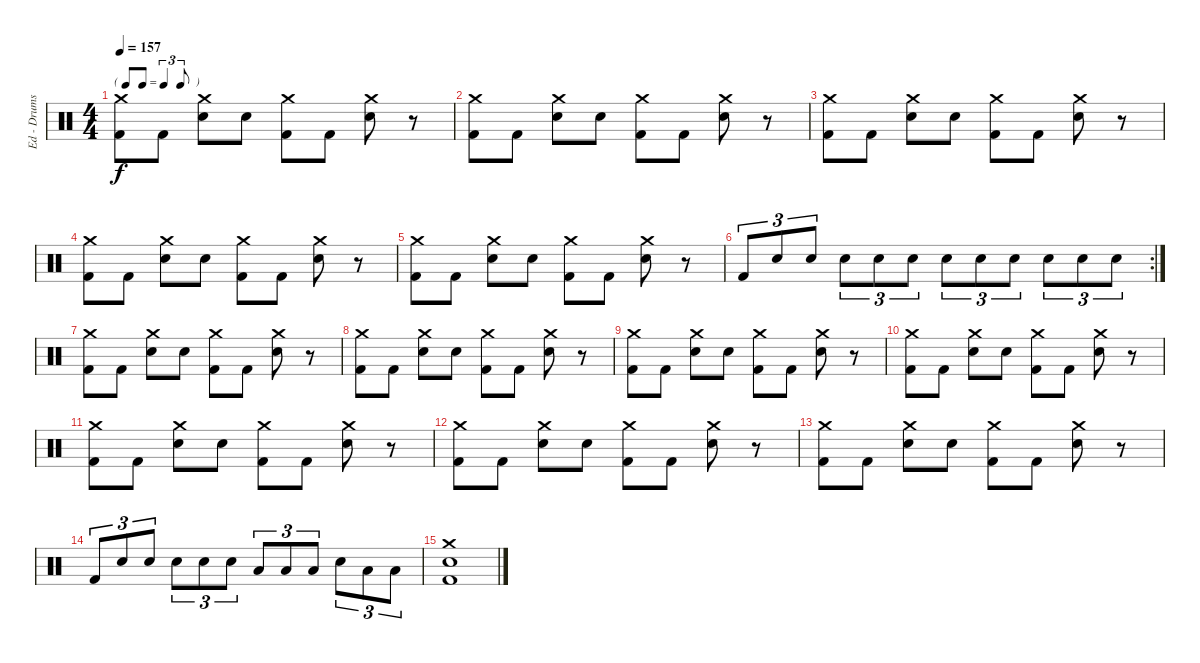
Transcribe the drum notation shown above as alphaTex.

\track ("Ed - Drums" "Ed - Drums") {instrument percussion}
\staff {score}
\articulation defaults
\ts (4 4)
\tf triplet8th
\tempo 157
\clef neutral
\ks c
("Crash medium (hit)" "Kick (hit) 2").8{dy f} "Kick (hit) 2".8 ("Crash medium (hit)" "Electric Snare (hit)").8 "Electric Snare (hit)".8 ("Crash medium (hit)" "Kick (hit) 2").8 "Kick (hit) 2".8 ("Crash medium (hit)" "Electric Snare (hit)").8 r.8 |
("Crash medium (hit)" "Kick (hit) 2").8 "Kick (hit) 2".8 ("Crash medium (hit)" "Electric Snare (hit)").8 "Electric Snare (hit)".8 ("Crash medium (hit)" "Kick (hit) 2").8 "Kick (hit) 2".8 ("Crash medium (hit)" "Electric Snare (hit)").8 r.8 |
("Crash medium (hit)" "Kick (hit) 2").8 "Kick (hit) 2".8 ("Crash medium (hit)" "Electric Snare (hit)").8 "Electric Snare (hit)".8 ("Crash medium (hit)" "Kick (hit) 2").8 "Kick (hit) 2".8 ("Crash medium (hit)" "Electric Snare (hit)").8 r.8 |
("Crash medium (hit)" "Kick (hit) 2").8 "Kick (hit) 2".8 ("Crash medium (hit)" "Electric Snare (hit)").8 "Electric Snare (hit)".8 ("Crash medium (hit)" "Kick (hit) 2").8 "Kick (hit) 2".8 ("Crash medium (hit)" "Electric Snare (hit)").8 r.8 |
("Crash medium (hit)" "Kick (hit) 2").8 "Kick (hit) 2".8 ("Crash medium (hit)" "Electric Snare (hit)").8 "Electric Snare (hit)".8 ("Crash medium (hit)" "Kick (hit) 2").8 "Kick (hit) 2".8 ("Crash medium (hit)" "Electric Snare (hit)").8 r.8 |
\rc 2 "Kick (hit) 2".8{tu (3 2)} "Electric Snare (hit)".8{tu (3 2)} "Electric Snare (hit)".8{tu (3 2)} "Electric Snare (hit)".8{tu (3 2)} "Electric Snare (hit)".8{tu (3 2)} "Electric Snare (hit)".8{tu (3 2)} "Electric Snare (hit)".8{tu (3 2)} "Electric Snare (hit)".8{tu (3 2)} "Electric Snare (hit)".8{tu (3 2)} "Electric Snare (hit)".8{tu (3 2)} "Electric Snare (hit)".8{tu (3 2)} "Electric Snare (hit)".8{tu (3 2)}
|
("Crash medium (hit)" "Kick (hit) 2").8 "Kick (hit) 2".8 ("Crash medium (hit)" "Electric Snare (hit)").8 "Electric Snare (hit)".8 ("Crash medium (hit)" "Kick (hit) 2").8 "Kick (hit) 2".8 ("Crash medium (hit)" "Electric Snare (hit)").8 r.8 |
("Crash medium (hit)" "Kick (hit) 2").8 "Kick (hit) 2".8 ("Crash medium (hit)" "Electric Snare (hit)").8 "Electric Snare (hit)".8 ("Crash medium (hit)" "Kick (hit) 2").8 "Kick (hit) 2".8 ("Crash medium (hit)" "Electric Snare (hit)").8 r.8 |
("Crash medium (hit)" "Kick (hit) 2").8 "Kick (hit) 2".8 ("Crash medium (hit)" "Electric Snare (hit)").8 "Electric Snare (hit)".8 ("Crash medium (hit)" "Kick (hit) 2").8 "Kick (hit) 2".8 ("Crash medium (hit)" "Electric Snare (hit)").8 r.8 |
("Crash medium (hit)" "Kick (hit) 2").8 "Kick (hit) 2".8 ("Crash medium (hit)" "Electric Snare (hit)").8 "Electric Snare (hit)".8 ("Crash medium (hit)" "Kick (hit) 2").8 "Kick (hit) 2".8 ("Crash medium (hit)" "Electric Snare (hit)").8 r.8 |
("Crash medium (hit)" "Kick (hit) 2").8 "Kick (hit) 2".8 ("Crash medium (hit)" "Electric Snare (hit)").8 "Electric Snare (hit)".8 ("Crash medium (hit)" "Kick (hit) 2").8 "Kick (hit) 2".8 ("Crash medium (hit)" "Electric Snare (hit)").8 r.8 |
("Crash medium (hit)" "Kick (hit) 2").8 "Kick (hit) 2".8 ("Crash medium (hit)" "Electric Snare (hit)").8 "Electric Snare (hit)".8 ("Crash medium (hit)" "Kick (hit) 2").8 "Kick (hit) 2".8 ("Crash medium (hit)" "Electric Snare (hit)").8 r.8 |
("Crash medium (hit)" "Kick (hit) 2").8 "Kick (hit) 2".8 ("Crash medium (hit)" "Electric Snare (hit)").8 "Electric Snare (hit)".8 ("Crash medium (hit)" "Kick (hit) 2").8 "Kick (hit) 2".8 ("Crash medium (hit)" "Electric Snare (hit)").8 r.8 |
"Kick (hit) 2".8{tu (3 2)} "Electric Snare (hit)".8{tu (3 2)} "Electric Snare (hit)".8{tu (3 2)} "Electric Snare (hit)".8{tu (3 2)} "Electric Snare (hit)".8{tu (3 2)} "Electric Snare (hit)".8{tu (3 2)} "Low Tom (hit)".8{tu (3 2)} "Low Tom (hit)".8{tu (3 2)} "Low Tom (hit)".8{tu (3 2)} "Electric Snare (hit)".8{tu (3 2)} "Low Floor Tom (hit)".8{tu (3 2)} "Low Floor Tom (hit)".8{tu (3 2)} |
("Crash medium (hit)" "Electric Snare (hit)" "Kick (hit) 2").1
